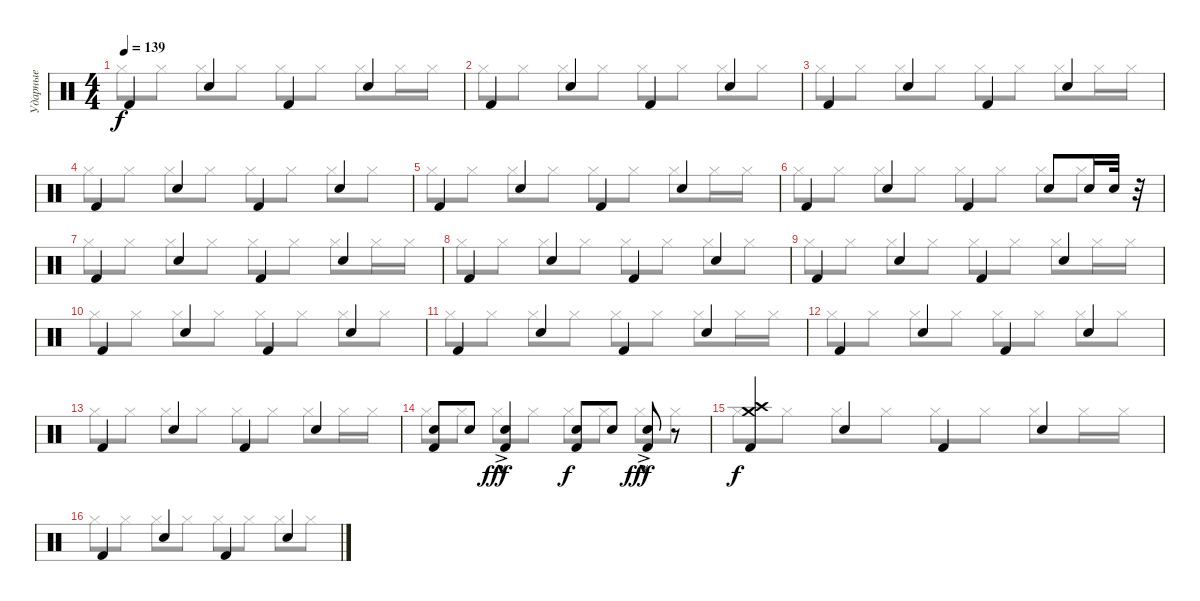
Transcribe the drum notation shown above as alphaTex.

\track ("Ударные" "Ударные") {instrument percussion}
\staff {score}
\articulation defaults
\voice
\ts (4 4)
\tempo 139
\clef neutral
\ks c "Kick (hit) 2".4{dy f} "Snare (hit) 2".4 "Kick (hit) 2".4 "Snare (hit) 2".4
|
"Kick (hit) 2".4 "Snare (hit) 2".4 "Kick (hit) 2".4 "Snare (hit) 2".4 |
"Kick (hit) 2".4 "Snare (hit) 2".4 "Kick (hit) 2".4 "Snare (hit) 2".4 |
"Kick (hit) 2".4 "Snare (hit) 2".4 "Kick (hit) 2".4 "Snare (hit) 2".4 |
"Kick (hit) 2".4 "Snare (hit) 2".4 "Kick (hit) 2".4 "Snare (hit) 2".4 |
"Kick (hit) 2".4 "Snare (hit) 2".4 "Kick (hit) 2".4 "Snare (hit) 2".8 "Snare (hit) 2".16 "Snare (hit) 2".32 r.32 |
"Kick (hit) 2".4 "Snare (hit) 2".4 "Kick (hit) 2".4 "Snare (hit) 2".4 |
"Kick (hit) 2".4 "Snare (hit) 2".4 "Kick (hit) 2".4 "Snare (hit) 2".4 |
"Kick (hit) 2".4 "Snare (hit) 2".4 "Kick (hit) 2".4 "Snare (hit) 2".4 |
"Kick (hit) 2".4 "Snare (hit) 2".4 "Kick (hit) 2".4 "Snare (hit) 2".4 |
"Kick (hit) 2".4 "Snare (hit) 2".4 "Kick (hit) 2".4 "Snare (hit) 2".4 |
"Kick (hit) 2".4 "Snare (hit) 2".4 "Kick (hit) 2".4 "Snare (hit) 2".4 |
"Kick (hit) 2".4 "Snare (hit) 2".4 "Kick (hit) 2".4 "Snare (hit) 2".4 |
("Kick (hit) 2" "Snare (hit) 2").8 "Snare (hit) 2".8 ("Kick (hit) 2"{ac} "Snare (hit) 2"{hac}).4{dy fff} ("Kick (hit) 2" "Snare (hit) 2").8{dy f} "Snare (hit) 2".8 ("Kick (hit) 2"{ac} "Snare (hit) 2"{hac}).8{dy fff} r.8 |
("Kick (hit) 2" "Crash high (hit)" "Crash medium (hit)").4{dy f} "Snare (hit) 2".4 "Kick (hit) 2".4 "Snare (hit) 2".4 |
"Kick (hit) 2".4 "Snare (hit) 2".4 "Kick (hit) 2".4 "Snare (hit) 2".4
\voice
\clef neutral
\ottava regular
\simile none
\ks c "Hi-Hat (closed)".8{dy f} "Hi-Hat (closed)".8 "Hi-Hat (closed)".8 "Hi-Hat (closed)".8 "Hi-Hat (closed)".8 "Hi-Hat (closed)".8 "Hi-Hat (closed)".8 "Hi-Hat (closed)".16 "Hi-Hat (closed)".16
|
"Hi-Hat (closed)".8 "Hi-Hat (closed)".8 "Hi-Hat (closed)".8 "Hi-Hat (closed)".8 "Hi-Hat (closed)".8 "Hi-Hat (closed)".8 "Hi-Hat (closed)".8 "Hi-Hat (closed)".8 |
"Hi-Hat (closed)".8 "Hi-Hat (closed)".8 "Hi-Hat (closed)".8 "Hi-Hat (closed)".8 "Hi-Hat (closed)".8 "Hi-Hat (closed)".8 "Hi-Hat (closed)".8 "Hi-Hat (closed)".16 "Hi-Hat (closed)".16 |
"Hi-Hat (closed)".8 "Hi-Hat (closed)".8 "Hi-Hat (closed)".8 "Hi-Hat (closed)".8 "Hi-Hat (closed)".8 "Hi-Hat (closed)".8 "Hi-Hat (closed)".8 "Hi-Hat (closed)".8 |
"Hi-Hat (closed)".8 "Hi-Hat (closed)".8 "Hi-Hat (closed)".8 "Hi-Hat (closed)".8 "Hi-Hat (closed)".8 "Hi-Hat (closed)".8 "Hi-Hat (closed)".8 "Hi-Hat (closed)".16 "Hi-Hat (closed)".16 |
"Hi-Hat (closed)".8 "Hi-Hat (closed)".8 "Hi-Hat (closed)".8 "Hi-Hat (closed)".8 "Hi-Hat (closed)".8 "Hi-Hat (closed)".8 "Hi-Hat (closed)".8 "Hi-Hat (closed)".8 |
"Hi-Hat (closed)".8 "Hi-Hat (closed)".8 "Hi-Hat (closed)".8 "Hi-Hat (closed)".8 "Hi-Hat (closed)".8 "Hi-Hat (closed)".8 "Hi-Hat (closed)".8 "Hi-Hat (closed)".16 "Hi-Hat (closed)".16 |
"Hi-Hat (closed)".8 "Hi-Hat (closed)".8 "Hi-Hat (closed)".8 "Hi-Hat (closed)".8 "Hi-Hat (closed)".8 "Hi-Hat (closed)".8 "Hi-Hat (closed)".8 "Hi-Hat (closed)".8 |
"Hi-Hat (closed)".8 "Hi-Hat (closed)".8 "Hi-Hat (closed)".8 "Hi-Hat (closed)".8 "Hi-Hat (closed)".8 "Hi-Hat (closed)".8 "Hi-Hat (closed)".8 "Hi-Hat (closed)".16 "Hi-Hat (closed)".16 |
"Hi-Hat (closed)".8 "Hi-Hat (closed)".8 "Hi-Hat (closed)".8 "Hi-Hat (closed)".8 "Hi-Hat (closed)".8 "Hi-Hat (closed)".8 "Hi-Hat (closed)".8 "Hi-Hat (closed)".8 |
"Hi-Hat (closed)".8 "Hi-Hat (closed)".8 "Hi-Hat (closed)".8 "Hi-Hat (closed)".8 "Hi-Hat (closed)".8 "Hi-Hat (closed)".8 "Hi-Hat (closed)".8 "Hi-Hat (closed)".16 "Hi-Hat (closed)".16 |
"Hi-Hat (closed)".8 "Hi-Hat (closed)".8 "Hi-Hat (closed)".8 "Hi-Hat (closed)".8 "Hi-Hat (closed)".8 "Hi-Hat (closed)".8 "Hi-Hat (closed)".8 "Hi-Hat (closed)".8 |
"Hi-Hat (closed)".8 "Hi-Hat (closed)".8 "Hi-Hat (closed)".8 "Hi-Hat (closed)".8 "Hi-Hat (closed)".8 "Hi-Hat (closed)".8 "Hi-Hat (closed)".8 "Hi-Hat (closed)".16 "Hi-Hat (closed)".16 |
"Hi-Hat (closed)".8 "Hi-Hat (closed)".8 "Hi-Hat (closed)".8 "Hi-Hat (closed)".8 "Hi-Hat (closed)".8 "Hi-Hat (closed)".8 "Hi-Hat (closed)".8 "Hi-Hat (closed)".8 |
"Hi-Hat (closed)".8 "Hi-Hat (closed)".8 "Hi-Hat (closed)".8 "Hi-Hat (closed)".8 "Hi-Hat (closed)".8 "Hi-Hat (closed)".8 "Hi-Hat (closed)".8 "Hi-Hat (closed)".16 "Hi-Hat (closed)".16 |
"Hi-Hat (closed)".8 "Hi-Hat (closed)".8 "Hi-Hat (closed)".8 "Hi-Hat (closed)".8 "Hi-Hat (closed)".8 "Hi-Hat (closed)".8 "Hi-Hat (closed)".8 "Hi-Hat (closed)".8
